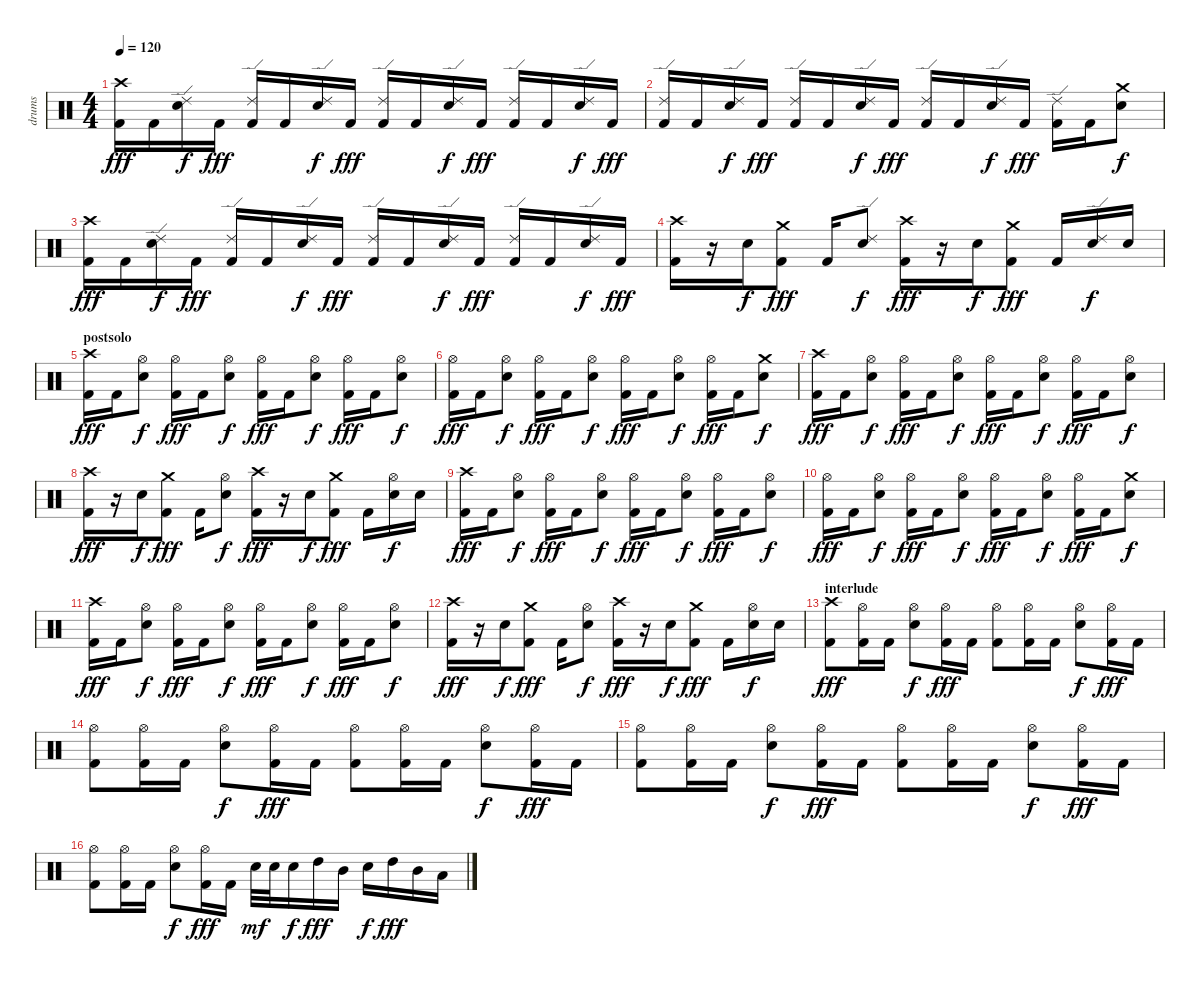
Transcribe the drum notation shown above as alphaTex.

\track ("drums" "drums") {instrument percussion}
\staff {score}
\articulation defaults
\ts (4 4)
\tempo 120
\clef neutral
\ks c
("Crash high (hit)" "Kick (hit) 2").16{dy fff} "Kick (hit) 2".16 ("Ride (edge) 2" "Snare (hit) 2").16{dy f} "Kick (hit) 2".16{dy fff} ("Ride (edge) 2" "Kick (hit) 2").16 "Kick (hit) 2".16 ("Ride (edge) 2" "Snare (hit) 2").16{dy f} "Kick (hit) 2".16{dy fff} ("Ride (edge) 2" "Kick (hit) 2").16 "Kick (hit) 2".16 ("Ride (edge) 2" "Snare (hit) 2").16{dy f} "Kick (hit) 2".16{dy fff} ("Ride (edge) 2" "Kick (hit) 2").16 "Kick (hit) 2".16 ("Ride (edge) 2" "Snare (hit) 2").16{dy f} "Kick (hit) 2".16{dy fff} |
("Ride (edge) 2" "Kick (hit) 2").16 "Kick (hit) 2".16 ("Ride (edge) 2" "Snare (hit) 2").16{dy f} "Kick (hit) 2".16{dy fff} ("Ride (edge) 2" "Kick (hit) 2").16 "Kick (hit) 2".16 ("Ride (edge) 2" "Snare (hit) 2").16{dy f} "Kick (hit) 2".16{dy fff} ("Ride (edge) 2" "Kick (hit) 2").16 "Kick (hit) 2".16 ("Ride (edge) 2" "Snare (hit) 2").16{dy f} "Kick (hit) 2".16{dy fff} ("Ride (edge) 2" "Kick (hit) 2").16 "Kick (hit) 2".16 ("Crash medium (hit)" "Snare (hit) 2").8{dy f} |
("Crash high (hit)" "Kick (hit) 2").16{dy fff} "Kick (hit) 2".16 ("Ride (edge) 2" "Snare (hit) 2").16{dy f} "Kick (hit) 2".16{dy fff} ("Ride (edge) 2" "Kick (hit) 2").16 "Kick (hit) 2".16 ("Ride (edge) 2" "Snare (hit) 2").16{dy f} "Kick (hit) 2".16{dy fff} ("Ride (edge) 2" "Kick (hit) 2").16 "Kick (hit) 2".16 ("Ride (edge) 2" "Snare (hit) 2").16{dy f} "Kick (hit) 2".16{dy fff} ("Ride (edge) 2" "Kick (hit) 2").16 "Kick (hit) 2".16 ("Ride (edge) 2" "Snare (hit) 2").16{dy f} "Kick (hit) 2".16{dy fff} |
("Crash high (hit)" "Kick (hit) 2").16 r.16 "Snare (hit) 2".16{dy f} ("Crash medium (hit)" "Kick (hit) 2").8{dy fff} "Kick (hit) 2".16 ("Ride (edge) 2" "Snare (hit) 2").8{dy f} ("Crash high (hit)" "Kick (hit) 2").16{dy fff} r.16 "Snare (hit) 2".16{dy f} ("Crash medium (hit)" "Kick (hit) 2").8{dy fff} "Kick (hit) 2".16 ("Ride (edge) 2" "Snare (hit) 2").16{dy f} "Snare (hit) 2".16 |
\section ("" "postsolo")
("Crash high (hit)" "Kick (hit) 2").16{dy fff} "Kick (hit) 2".16 ("Hi-Hat (open)" "Snare (hit) 2").8{dy f} ("Hi-Hat (open)" "Kick (hit) 2").16{dy fff} "Kick (hit) 2".16 ("Hi-Hat (open)" "Snare (hit) 2").8{dy f} ("Hi-Hat (open)" "Kick (hit) 2").16{dy fff} "Kick (hit) 2".16 ("Hi-Hat (open)" "Snare (hit) 2").8{dy f} ("Hi-Hat (open)" "Kick (hit) 2").16{dy fff} "Kick (hit) 2".16 ("Hi-Hat (open)" "Snare (hit) 2").8{dy f} |
("Hi-Hat (open)" "Kick (hit) 2").16{dy fff} "Kick (hit) 2".16 ("Hi-Hat (open)" "Snare (hit) 2").8{dy f} ("Hi-Hat (open)" "Kick (hit) 2").16{dy fff} "Kick (hit) 2".16 ("Hi-Hat (open)" "Snare (hit) 2").8{dy f} ("Hi-Hat (open)" "Kick (hit) 2").16{dy fff} "Kick (hit) 2".16 ("Hi-Hat (open)" "Snare (hit) 2").8{dy f} ("Hi-Hat (open)" "Kick (hit) 2").16{dy fff} "Kick (hit) 2".16 ("Crash medium (hit)" "Snare (hit) 2").8{dy f} |
("Crash high (hit)" "Kick (hit) 2").16{dy fff} "Kick (hit) 2".16 ("Hi-Hat (open)" "Snare (hit) 2").8{dy f} ("Hi-Hat (open)" "Kick (hit) 2").16{dy fff} "Kick (hit) 2".16 ("Hi-Hat (open)" "Snare (hit) 2").8{dy f} ("Hi-Hat (open)" "Kick (hit) 2").16{dy fff} "Kick (hit) 2".16 ("Hi-Hat (open)" "Snare (hit) 2").8{dy f} ("Hi-Hat (open)" "Kick (hit) 2").16{dy fff} "Kick (hit) 2".16 ("Hi-Hat (open)" "Snare (hit) 2").8{dy f} |
("Crash high (hit)" "Kick (hit) 2").16{dy fff} r.16 "Snare (hit) 2".16{dy f} ("Crash medium (hit)" "Kick (hit) 2").8{dy fff} "Kick (hit) 2".16 ("Hi-Hat (open)" "Snare (hit) 2").8{dy f} ("Crash high (hit)" "Kick (hit) 2").16{dy fff} r.16 "Snare (hit) 2".16{dy f} ("Crash medium (hit)" "Kick (hit) 2").8{dy fff} "Kick (hit) 2".16 ("Hi-Hat (open)" "Snare (hit) 2").16{dy f} "Snare (hit) 2".16 |
("Crash high (hit)" "Kick (hit) 2").16{dy fff} "Kick (hit) 2".16 ("Hi-Hat (open)" "Snare (hit) 2").8{dy f} ("Hi-Hat (open)" "Kick (hit) 2").16{dy fff} "Kick (hit) 2".16 ("Hi-Hat (open)" "Snare (hit) 2").8{dy f} ("Hi-Hat (open)" "Kick (hit) 2").16{dy fff} "Kick (hit) 2".16 ("Hi-Hat (open)" "Snare (hit) 2").8{dy f} ("Hi-Hat (open)" "Kick (hit) 2").16{dy fff} "Kick (hit) 2".16 ("Hi-Hat (open)" "Snare (hit) 2").8{dy f} |
("Hi-Hat (open)" "Kick (hit) 2").16{dy fff} "Kick (hit) 2".16 ("Hi-Hat (open)" "Snare (hit) 2").8{dy f} ("Hi-Hat (open)" "Kick (hit) 2").16{dy fff} "Kick (hit) 2".16 ("Hi-Hat (open)" "Snare (hit) 2").8{dy f} ("Hi-Hat (open)" "Kick (hit) 2").16{dy fff} "Kick (hit) 2".16 ("Hi-Hat (open)" "Snare (hit) 2").8{dy f} ("Hi-Hat (open)" "Kick (hit) 2").16{dy fff} "Kick (hit) 2".16 ("Crash medium (hit)" "Snare (hit) 2").8{dy f} |
("Crash high (hit)" "Kick (hit) 2").16{dy fff} "Kick (hit) 2".16 ("Hi-Hat (open)" "Snare (hit) 2").8{dy f} ("Hi-Hat (open)" "Kick (hit) 2").16{dy fff} "Kick (hit) 2".16 ("Hi-Hat (open)" "Snare (hit) 2").8{dy f} ("Hi-Hat (open)" "Kick (hit) 2").16{dy fff} "Kick (hit) 2".16 ("Hi-Hat (open)" "Snare (hit) 2").8{dy f} ("Hi-Hat (open)" "Kick (hit) 2").16{dy fff} "Kick (hit) 2".16 ("Hi-Hat (open)" "Snare (hit) 2").8{dy f} |
("Crash high (hit)" "Kick (hit) 2").16{dy fff} r.16 "Snare (hit) 2".16{dy f} ("Crash medium (hit)" "Kick (hit) 2").8{dy fff} "Kick (hit) 2".16 ("Hi-Hat (open)" "Snare (hit) 2").8{dy f} ("Crash high (hit)" "Kick (hit) 2").16{dy fff} r.16 "Snare (hit) 2".16{dy f} ("Crash medium (hit)" "Kick (hit) 2").8{dy fff} "Kick (hit) 2".16 ("Hi-Hat (open)" "Snare (hit) 2").16{dy f} "Snare (hit) 2".16 |
\section ("" "interlude")
("Crash high (hit)" "Kick (hit) 2").8{dy fff} ("Hi-Hat (open)" "Kick (hit) 2").16 "Kick (hit) 2".16 ("Hi-Hat (open)" "Snare (hit) 2").8{dy f} ("Hi-Hat (open)" "Kick (hit) 2").16{dy fff} "Kick (hit) 2".16 ("Hi-Hat (open)" "Kick (hit) 2").8 ("Hi-Hat (open)" "Kick (hit) 2").16 "Kick (hit) 2".16 ("Hi-Hat (open)" "Snare (hit) 2").8{dy f} ("Hi-Hat (open)" "Kick (hit) 2").16{dy fff} "Kick (hit) 2".16 |
("Hi-Hat (open)" "Kick (hit) 2").8 ("Hi-Hat (open)" "Kick (hit) 2").16 "Kick (hit) 2".16 ("Hi-Hat (open)" "Snare (hit) 2").8{dy f} ("Hi-Hat (open)" "Kick (hit) 2").16{dy fff} "Kick (hit) 2".16 ("Hi-Hat (open)" "Kick (hit) 2").8 ("Hi-Hat (open)" "Kick (hit) 2").16 "Kick (hit) 2".16 ("Hi-Hat (open)" "Snare (hit) 2").8{dy f} ("Hi-Hat (open)" "Kick (hit) 2").16{dy fff} "Kick (hit) 2".16 |
("Hi-Hat (open)" "Kick (hit) 2").8 ("Hi-Hat (open)" "Kick (hit) 2").16 "Kick (hit) 2".16 ("Hi-Hat (open)" "Snare (hit) 2").8{dy f} ("Hi-Hat (open)" "Kick (hit) 2").16{dy fff} "Kick (hit) 2".16 ("Hi-Hat (open)" "Kick (hit) 2").8 ("Hi-Hat (open)" "Kick (hit) 2").16 "Kick (hit) 2".16 ("Hi-Hat (open)" "Snare (hit) 2").8{dy f} ("Hi-Hat (open)" "Kick (hit) 2").16{dy fff} "Kick (hit) 2".16 |
("Hi-Hat (open)" "Kick (hit) 2").8 ("Hi-Hat (open)" "Kick (hit) 2").16 "Kick (hit) 2".16 ("Hi-Hat (open)" "Snare (hit) 2").8{dy f} ("Hi-Hat (open)" "Kick (hit) 2").16{dy fff} "Kick (hit) 2".16 "Snare (hit) 2".32{dy mf} "Snare (hit) 2".32 "Snare (hit) 2".16{dy f} "High Tom (hit)".16{dy fff} "Mid Tom (hit)".16 "Snare (hit) 2".16{dy f} "High Tom (hit)".16{dy fff} "Mid Tom (hit)".16 "Low Tom (hit)".16
